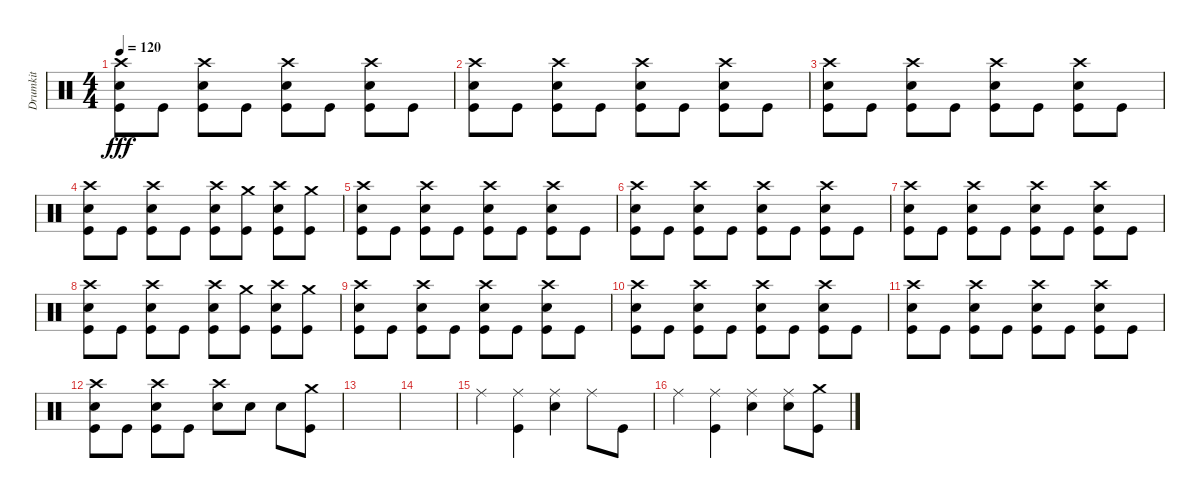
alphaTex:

\track ("Drumkit" "Drumkit") {instrument percussion}
\staff {score}
\articulation defaults
\ts (4 4)
\tempo 120
\clef neutral
\ks c
("Kick (hit)" "Snare (hit) 2" "Crash high (hit)").8{dy fff} "Kick (hit)".8 ("Kick (hit)" "Snare (hit) 2" "Crash high (hit)").8 "Kick (hit)".8 ("Kick (hit)" "Snare (hit) 2" "Crash high (hit)").8 "Kick (hit)".8 ("Kick (hit)" "Snare (hit) 2" "Crash high (hit)").8 "Kick (hit)".8 |
("Kick (hit)" "Snare (hit) 2" "Crash high (hit)").8 "Kick (hit)".8 ("Kick (hit)" "Snare (hit) 2" "Crash high (hit)").8 "Kick (hit)".8 ("Kick (hit)" "Snare (hit) 2" "Crash high (hit)").8 "Kick (hit)".8 ("Kick (hit)" "Snare (hit) 2" "Crash high (hit)").8 "Kick (hit)".8 |
("Kick (hit)" "Snare (hit) 2" "Crash high (hit)").8 "Kick (hit)".8 ("Kick (hit)" "Snare (hit) 2" "Crash high (hit)").8 "Kick (hit)".8 ("Kick (hit)" "Snare (hit) 2" "Crash high (hit)").8 "Kick (hit)".8 ("Kick (hit)" "Snare (hit) 2" "Crash high (hit)").8 "Kick (hit)".8 |
("Kick (hit)" "Snare (hit) 2" "Crash high (hit)").8 "Kick (hit)".8 ("Kick (hit)" "Snare (hit) 2" "Crash high (hit)").8 "Kick (hit)".8 ("Kick (hit)" "Snare (hit) 2" "Crash high (hit)").8 ("Kick (hit)" "Crash medium (hit)").8 ("Kick (hit)" "Snare (hit) 2" "Crash high (hit)").8 ("Kick (hit)" "Crash medium (hit)").8 |
("Kick (hit)" "Snare (hit) 2" "Crash high (hit)").8 "Kick (hit)".8 ("Kick (hit)" "Snare (hit) 2" "Crash high (hit)").8 "Kick (hit)".8 ("Kick (hit)" "Snare (hit) 2" "Crash high (hit)").8 "Kick (hit)".8 ("Kick (hit)" "Snare (hit) 2" "Crash high (hit)").8 "Kick (hit)".8 |
("Kick (hit)" "Snare (hit) 2" "Crash high (hit)").8 "Kick (hit)".8 ("Kick (hit)" "Snare (hit) 2" "Crash high (hit)").8 "Kick (hit)".8 ("Kick (hit)" "Snare (hit) 2" "Crash high (hit)").8 "Kick (hit)".8 ("Kick (hit)" "Snare (hit) 2" "Crash high (hit)").8 "Kick (hit)".8 |
("Kick (hit)" "Snare (hit) 2" "Crash high (hit)").8 "Kick (hit)".8 ("Kick (hit)" "Snare (hit) 2" "Crash high (hit)").8 "Kick (hit)".8 ("Kick (hit)" "Snare (hit) 2" "Crash high (hit)").8 "Kick (hit)".8 ("Kick (hit)" "Snare (hit) 2" "Crash high (hit)").8 "Kick (hit)".8 |
("Kick (hit)" "Snare (hit) 2" "Crash high (hit)").8 "Kick (hit)".8 ("Kick (hit)" "Snare (hit) 2" "Crash high (hit)").8 "Kick (hit)".8 ("Kick (hit)" "Snare (hit) 2" "Crash high (hit)").8 ("Kick (hit)" "Crash medium (hit)").8 ("Kick (hit)" "Snare (hit) 2" "Crash high (hit)").8 ("Kick (hit)" "Crash medium (hit)").8 |
("Kick (hit)" "Snare (hit) 2" "Crash high (hit)").8 "Kick (hit)".8 ("Kick (hit)" "Snare (hit) 2" "Crash high (hit)").8 "Kick (hit)".8 ("Kick (hit)" "Snare (hit) 2" "Crash high (hit)").8 "Kick (hit)".8 ("Kick (hit)" "Snare (hit) 2" "Crash high (hit)").8 "Kick (hit)".8 |
("Kick (hit)" "Snare (hit) 2" "Crash high (hit)").8 "Kick (hit)".8 ("Kick (hit)" "Snare (hit) 2" "Crash high (hit)").8 "Kick (hit)".8 ("Kick (hit)" "Snare (hit) 2" "Crash high (hit)").8 "Kick (hit)".8 ("Kick (hit)" "Snare (hit) 2" "Crash high (hit)").8 "Kick (hit)".8 |
("Kick (hit)" "Snare (hit) 2" "Crash high (hit)").8 "Kick (hit)".8 ("Kick (hit)" "Snare (hit) 2" "Crash high (hit)").8 "Kick (hit)".8 ("Kick (hit)" "Snare (hit) 2" "Crash high (hit)").8 "Kick (hit)".8 ("Kick (hit)" "Snare (hit) 2" "Crash high (hit)").8 "Kick (hit)".8 |
("Kick (hit)" "Snare (hit) 2" "Crash high (hit)").8 "Kick (hit)".8 ("Kick (hit)" "Snare (hit) 2" "Crash high (hit)").8 "Kick (hit)".8 ("Snare (hit) 2" "Crash high (hit)").8 "Snare (hit) 2".8 "Snare (hit) 2".8 ("Crash medium (hit)" "Kick (hit)").8 |
|
|
"Ride (middle)".4 ("Ride (middle)" "Kick (hit)").4 ("Ride (middle)" "Snare (hit) 2").4 "Ride (middle)".8 "Kick (hit)".8 |
"Ride (middle)".4 ("Ride (middle)" "Kick (hit)").4 ("Ride (middle)" "Snare (hit) 2").4 ("Ride (middle)" "Snare (hit) 2").8 ("Kick (hit)" "Crash medium (hit)").8
